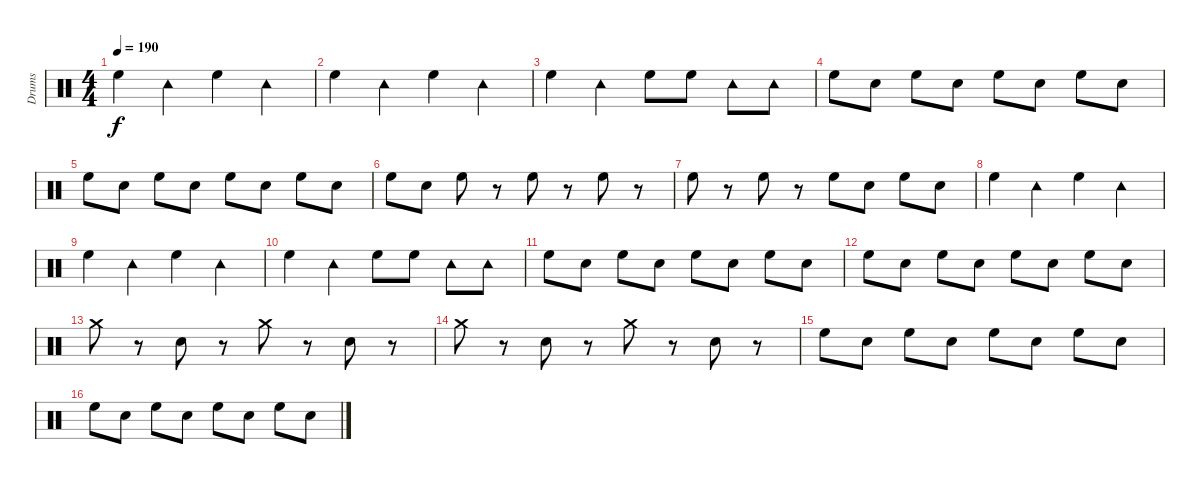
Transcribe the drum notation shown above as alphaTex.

\track ("Drums" "Drums") {instrument percussion}
\staff {score}
\articulation defaults
\ts (4 4)
\tempo 190
\clef neutral
\ks c "High Floor Tom (hit)".4{dy f} "Tambourine (hit)".4 "High Floor Tom (hit)".4 "Tambourine (hit)".4
|
"High Floor Tom (hit)".4 "Tambourine (hit)".4 "High Floor Tom (hit)".4 "Tambourine (hit)".4 |
"High Floor Tom (hit)".4 "Tambourine (hit)".4 "High Floor Tom (hit)".8 "High Floor Tom (hit)".8 "Tambourine (hit)".8 "Tambourine (hit)".8 |
"High Floor Tom (hit)".8 "Electric Snare (hit)".8 "High Floor Tom (hit)".8 "Electric Snare (hit)".8 "High Floor Tom (hit)".8 "Electric Snare (hit)".8 "High Floor Tom (hit)".8 "Electric Snare (hit)".8 |
"High Floor Tom (hit)".8 "Electric Snare (hit)".8 "High Floor Tom (hit)".8 "Electric Snare (hit)".8 "High Floor Tom (hit)".8 "Electric Snare (hit)".8 "High Floor Tom (hit)".8 "Electric Snare (hit)".8 |
"High Floor Tom (hit)".8 "Electric Snare (hit)".8 "High Floor Tom (hit)".8 r.8 "High Floor Tom (hit)".8 r.8 "High Floor Tom (hit)".8 r.8 |
"High Floor Tom (hit)".8 r.8 "High Floor Tom (hit)".8 r.8 "High Floor Tom (hit)".8 "Electric Snare (hit)".8 "High Floor Tom (hit)".8 "Electric Snare (hit)".8 |
"High Floor Tom (hit)".4 "Tambourine (hit)".4 "High Floor Tom (hit)".4 "Tambourine (hit)".4 |
"High Floor Tom (hit)".4 "Tambourine (hit)".4 "High Floor Tom (hit)".4 "Tambourine (hit)".4 |
"High Floor Tom (hit)".4 "Tambourine (hit)".4 "High Floor Tom (hit)".8 "High Floor Tom (hit)".8 "Tambourine (hit)".8 "Tambourine (hit)".8 |
"High Floor Tom (hit)".8 "Electric Snare (hit)".8 "High Floor Tom (hit)".8 "Electric Snare (hit)".8 "High Floor Tom (hit)".8 "Electric Snare (hit)".8 "High Floor Tom (hit)".8 "Electric Snare (hit)".8 |
"High Floor Tom (hit)".8 "Electric Snare (hit)".8 "High Floor Tom (hit)".8 "Electric Snare (hit)".8 "High Floor Tom (hit)".8 "Electric Snare (hit)".8 "High Floor Tom (hit)".8 "Electric Snare (hit)".8 |
"Crash medium (hit)".8 r.8 "Electric Snare (hit)".8 r.8 "Crash medium (hit)".8 r.8 "Electric Snare (hit)".8 r.8 |
"Crash medium (hit)".8 r.8 "Electric Snare (hit)".8 r.8 "Crash medium (hit)".8 r.8 "Electric Snare (hit)".8 r.8 |
"High Floor Tom (hit)".8 "Electric Snare (hit)".8 "High Floor Tom (hit)".8 "Electric Snare (hit)".8 "High Floor Tom (hit)".8 "Electric Snare (hit)".8 "High Floor Tom (hit)".8 "Electric Snare (hit)".8 |
"High Floor Tom (hit)".8 "Electric Snare (hit)".8 "High Floor Tom (hit)".8 "Electric Snare (hit)".8 "High Floor Tom (hit)".8 "Electric Snare (hit)".8 "High Floor Tom (hit)".8 "Electric Snare (hit)".8
